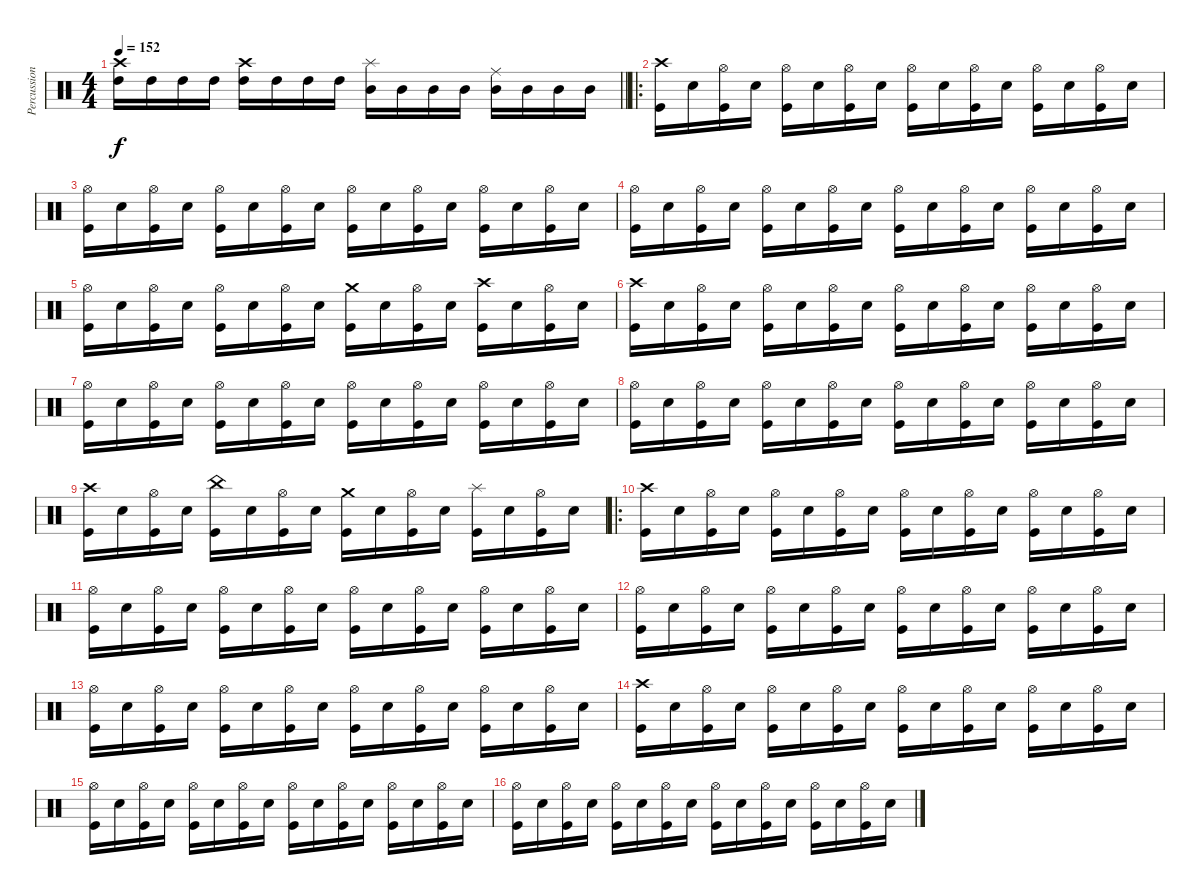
\track ("Percussion" "Percussion") {instrument percussion}
\staff {score}
\articulation defaults
\ts (4 4)
\tempo 152
\clef neutral
\barLineRight lightlight
\ks c
("Crash high (hit)" "High Tom (hit)").16{dy f} "High Tom (hit)".16 "High Tom (hit)".16 "High Tom (hit)".16 ("Crash high (hit)" "High Tom (hit)").16 "High Tom (hit)".16 "High Tom (hit)".16 "High Tom (hit)".16 ("Splash (hit)" "Mid Tom (hit)").16 "Mid Tom (hit)".16 "Mid Tom (hit)".16 "Mid Tom (hit)".16 ("Ride (middle)" "Mid Tom (hit)").16 "Mid Tom (hit)".16 "Mid Tom (hit)".16 "Mid Tom (hit)".16 |
\ro
("Crash high (hit)" "Kick (hit)").16 "Snare (hit) 2".16 ("Hi-Hat (open)" "Kick (hit)").16 "Snare (hit) 2".16 ("Hi-Hat (open)" "Kick (hit)").16 "Snare (hit) 2".16{volume 5} ("Hi-Hat (open)" "Kick (hit)").16 "Snare (hit) 2".16 ("Hi-Hat (open)" "Kick (hit)").16 "Snare (hit) 2".16 ("Hi-Hat (open)" "Kick (hit)").16 "Snare (hit) 2".16 ("Hi-Hat (open)" "Kick (hit)").16 "Snare (hit) 2".16 ("Hi-Hat (open)" "Kick (hit)").16 "Snare (hit) 2".16 |
("Hi-Hat (open)" "Kick (hit)").16 "Snare (hit) 2".16 ("Hi-Hat (open)" "Kick (hit)").16 "Snare (hit) 2".16 ("Hi-Hat (open)" "Kick (hit)").16 "Snare (hit) 2".16 ("Hi-Hat (open)" "Kick (hit)").16 "Snare (hit) 2".16 ("Hi-Hat (open)" "Kick (hit)").16 "Snare (hit) 2".16 ("Hi-Hat (open)" "Kick (hit)").16 "Snare (hit) 2".16 ("Hi-Hat (open)" "Kick (hit)").16 "Snare (hit) 2".16 ("Hi-Hat (open)" "Kick (hit)").16 "Snare (hit) 2".16 |
("Hi-Hat (open)" "Kick (hit)").16 "Snare (hit) 2".16 ("Hi-Hat (open)" "Kick (hit)").16 "Snare (hit) 2".16 ("Hi-Hat (open)" "Kick (hit)").16 "Snare (hit) 2".16 ("Hi-Hat (open)" "Kick (hit)").16 "Snare (hit) 2".16 ("Hi-Hat (open)" "Kick (hit)").16 "Snare (hit) 2".16 ("Hi-Hat (open)" "Kick (hit)").16 "Snare (hit) 2".16 ("Hi-Hat (open)" "Kick (hit)").16 "Snare (hit) 2".16 ("Hi-Hat (open)" "Kick (hit)").16 "Snare (hit) 2".16 |
("Hi-Hat (open)" "Kick (hit)").16 "Snare (hit) 2".16 ("Hi-Hat (open)" "Kick (hit)").16 "Snare (hit) 2".16 ("Hi-Hat (open)" "Kick (hit)").16 "Snare (hit) 2".16 ("Hi-Hat (open)" "Kick (hit)").16 "Snare (hit) 2".16 ("Crash medium (hit)" "Kick (hit)").16 "Snare (hit) 2".16 ("Hi-Hat (open)" "Kick (hit)").16 "Snare (hit) 2".16 ("Crash high (hit)" "Kick (hit)").16 "Snare (hit) 2".16 ("Hi-Hat (open)" "Kick (hit)").16 "Snare (hit) 2".16 |
("Crash high (hit)" "Kick (hit)").16 "Snare (hit) 2".16 ("Hi-Hat (open)" "Kick (hit)").16 "Snare (hit) 2".16 ("Hi-Hat (open)" "Kick (hit)").16 "Snare (hit) 2".16 ("Hi-Hat (open)" "Kick (hit)").16{volume 4} "Snare (hit) 2".16 ("Hi-Hat (open)" "Kick (hit)").16 "Snare (hit) 2".16 ("Hi-Hat (open)" "Kick (hit)").16 "Snare (hit) 2".16 ("Hi-Hat (open)" "Kick (hit)").16 "Snare (hit) 2".16 ("Hi-Hat (open)" "Kick (hit)").16 "Snare (hit) 2".16 |
("Hi-Hat (open)" "Kick (hit)").16 "Snare (hit) 2".16 ("Hi-Hat (open)" "Kick (hit)").16 "Snare (hit) 2".16 ("Hi-Hat (open)" "Kick (hit)").16 "Snare (hit) 2".16 ("Hi-Hat (open)" "Kick (hit)").16 "Snare (hit) 2".16 ("Hi-Hat (open)" "Kick (hit)").16 "Snare (hit) 2".16 ("Hi-Hat (open)" "Kick (hit)").16 "Snare (hit) 2".16 ("Hi-Hat (open)" "Kick (hit)").16 "Snare (hit) 2".16 ("Hi-Hat (open)" "Kick (hit)").16 "Snare (hit) 2".16 |
("Hi-Hat (open)" "Kick (hit)").16 "Snare (hit) 2".16 ("Hi-Hat (open)" "Kick (hit)").16 "Snare (hit) 2".16 ("Hi-Hat (open)" "Kick (hit)").16 "Snare (hit) 2".16 ("Hi-Hat (open)" "Kick (hit)").16 "Snare (hit) 2".16 ("Hi-Hat (open)" "Kick (hit)").16 "Snare (hit) 2".16 ("Hi-Hat (open)" "Kick (hit)").16 "Snare (hit) 2".16 ("Hi-Hat (open)" "Kick (hit)").16 "Snare (hit) 2".16 ("Hi-Hat (open)" "Kick (hit)").16 "Snare (hit) 2".16 |
("Crash high (hit)" "Kick (hit)").16 "Snare (hit) 2".16 ("Hi-Hat (open)" "Kick (hit)").16 "Snare (hit) 2".16 ("China (hit)" "Kick (hit)").16 "Snare (hit) 2".16 ("Hi-Hat (open)" "Kick (hit)").16 "Snare (hit) 2".16 ("Crash medium (hit)" "Kick (hit)").16 "Snare (hit) 2".16 ("Hi-Hat (open)" "Kick (hit)").16 "Snare (hit) 2".16 ("Splash (hit)" "Kick (hit)").16 "Snare (hit) 2".16 ("Hi-Hat (open)" "Kick (hit)").16 "Snare (hit) 2".16 |
\ro
("Crash high (hit)" "Kick (hit)").16 "Snare (hit) 2".16 ("Hi-Hat (open)" "Kick (hit)").16 "Snare (hit) 2".16 ("Hi-Hat (open)" "Kick (hit)").16 "Snare (hit) 2".16 ("Hi-Hat (open)" "Kick (hit)").16 "Snare (hit) 2".16{volume 3} ("Hi-Hat (open)" "Kick (hit)").16 "Snare (hit) 2".16 ("Hi-Hat (open)" "Kick (hit)").16 "Snare (hit) 2".16 ("Hi-Hat (open)" "Kick (hit)").16 "Snare (hit) 2".16 ("Hi-Hat (open)" "Kick (hit)").16 "Snare (hit) 2".16 |
("Hi-Hat (open)" "Kick (hit)").16 "Snare (hit) 2".16 ("Hi-Hat (open)" "Kick (hit)").16 "Snare (hit) 2".16 ("Hi-Hat (open)" "Kick (hit)").16 "Snare (hit) 2".16 ("Hi-Hat (open)" "Kick (hit)").16 "Snare (hit) 2".16 ("Hi-Hat (open)" "Kick (hit)").16 "Snare (hit) 2".16 ("Hi-Hat (open)" "Kick (hit)").16 "Snare (hit) 2".16 ("Hi-Hat (open)" "Kick (hit)").16 "Snare (hit) 2".16 ("Hi-Hat (open)" "Kick (hit)").16 "Snare (hit) 2".16 |
("Hi-Hat (open)" "Kick (hit)").16 "Snare (hit) 2".16 ("Hi-Hat (open)" "Kick (hit)").16 "Snare (hit) 2".16 ("Hi-Hat (open)" "Kick (hit)").16 "Snare (hit) 2".16 ("Hi-Hat (open)" "Kick (hit)").16 "Snare (hit) 2".16 ("Hi-Hat (open)" "Kick (hit)").16 "Snare (hit) 2".16 ("Hi-Hat (open)" "Kick (hit)").16 "Snare (hit) 2".16 ("Hi-Hat (open)" "Kick (hit)").16 "Snare (hit) 2".16 ("Hi-Hat (open)" "Kick (hit)").16 "Snare (hit) 2".16 |
("Hi-Hat (open)" "Kick (hit)").16 "Snare (hit) 2".16 ("Hi-Hat (open)" "Kick (hit)").16 "Snare (hit) 2".16 ("Hi-Hat (open)" "Kick (hit)").16 "Snare (hit) 2".16 ("Hi-Hat (open)" "Kick (hit)").16 "Snare (hit) 2".16 ("Hi-Hat (open)" "Kick (hit)").16 "Snare (hit) 2".16 ("Hi-Hat (open)" "Kick (hit)").16 "Snare (hit) 2".16 ("Hi-Hat (open)" "Kick (hit)").16 "Snare (hit) 2".16 ("Hi-Hat (open)" "Kick (hit)").16 "Snare (hit) 2".16 |
("Crash high (hit)" "Kick (hit)").16 "Snare (hit) 2".16 ("Hi-Hat (open)" "Kick (hit)").16 "Snare (hit) 2".16 ("Hi-Hat (open)" "Kick (hit)").16 "Snare (hit) 2".16 ("Hi-Hat (open)" "Kick (hit)").16 "Snare (hit) 2".16 ("Hi-Hat (open)" "Kick (hit)").16{volume 0} "Snare (hit) 2".16 ("Hi-Hat (open)" "Kick (hit)").16 "Snare (hit) 2".16 ("Hi-Hat (open)" "Kick (hit)").16 "Snare (hit) 2".16 ("Hi-Hat (open)" "Kick (hit)").16 "Snare (hit) 2".16 |
("Hi-Hat (open)" "Kick (hit)").16 "Snare (hit) 2".16 ("Hi-Hat (open)" "Kick (hit)").16 "Snare (hit) 2".16 ("Hi-Hat (open)" "Kick (hit)").16 "Snare (hit) 2".16 ("Hi-Hat (open)" "Kick (hit)").16 "Snare (hit) 2".16 ("Hi-Hat (open)" "Kick (hit)").16 "Snare (hit) 2".16 ("Hi-Hat (open)" "Kick (hit)").16 "Snare (hit) 2".16 ("Hi-Hat (open)" "Kick (hit)").16 "Snare (hit) 2".16 ("Hi-Hat (open)" "Kick (hit)").16 "Snare (hit) 2".16 |
("Hi-Hat (open)" "Kick (hit)").16 "Snare (hit) 2".16 ("Hi-Hat (open)" "Kick (hit)").16 "Snare (hit) 2".16 ("Hi-Hat (open)" "Kick (hit)").16 "Snare (hit) 2".16 ("Hi-Hat (open)" "Kick (hit)").16 "Snare (hit) 2".16 ("Hi-Hat (open)" "Kick (hit)").16 "Snare (hit) 2".16 ("Hi-Hat (open)" "Kick (hit)").16 "Snare (hit) 2".16 ("Hi-Hat (open)" "Kick (hit)").16 "Snare (hit) 2".16 ("Hi-Hat (open)" "Kick (hit)").16 "Snare (hit) 2".16
